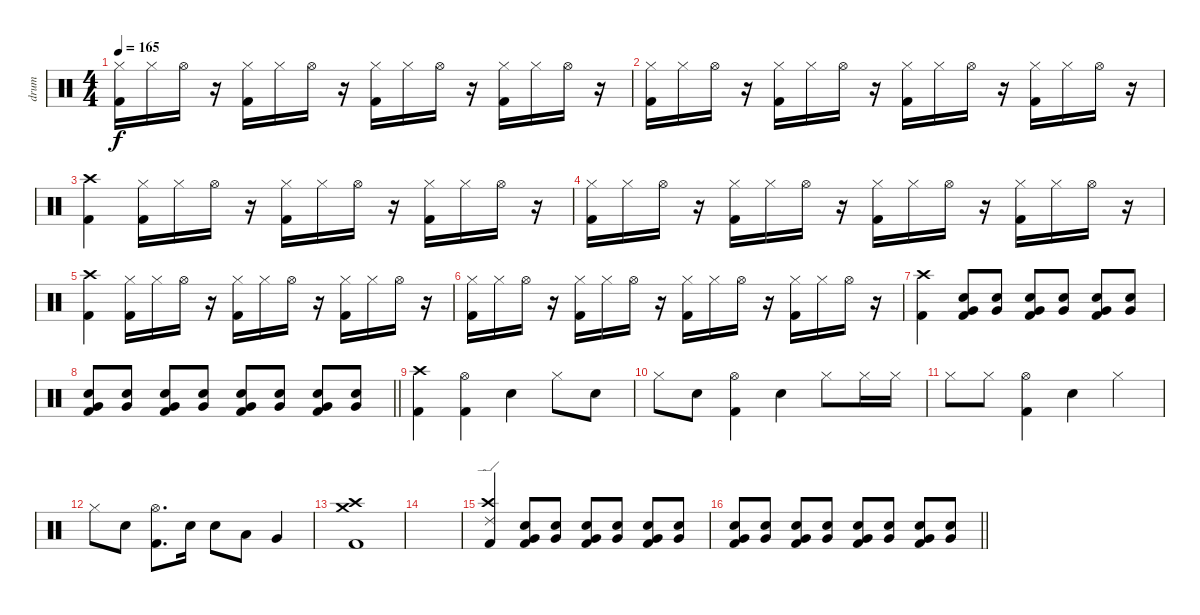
\track ("drum" "drum") {instrument percussion}
\staff {score}
\articulation defaults
\ts (4 4)
\tempo 165
\clef neutral
\ks c
("Hi-Hat (closed)" "Kick (hit) 2").16{dy f} "Hi-Hat (closed)".16 "Hi-Hat (open)".16 r.16 ("Hi-Hat (closed)" "Kick (hit) 2").16 "Hi-Hat (closed)".16 "Hi-Hat (open)".16 r.16 ("Hi-Hat (closed)" "Kick (hit) 2").16 "Hi-Hat (closed)".16 "Hi-Hat (open)".16 r.16 ("Hi-Hat (closed)" "Kick (hit) 2").16 "Hi-Hat (closed)".16 "Hi-Hat (open)".16 r.16 |
("Hi-Hat (closed)" "Kick (hit) 2").16 "Hi-Hat (closed)".16 "Hi-Hat (open)".16 r.16 ("Hi-Hat (closed)" "Kick (hit) 2").16 "Hi-Hat (closed)".16 "Hi-Hat (open)".16 r.16 ("Hi-Hat (closed)" "Kick (hit) 2").16 "Hi-Hat (closed)".16 "Hi-Hat (open)".16 r.16 ("Hi-Hat (closed)" "Kick (hit) 2").16 "Hi-Hat (closed)".16 "Hi-Hat (open)".16 r.16 |
("Crash high (hit)" "Kick (hit) 2").4 ("Hi-Hat (closed)" "Kick (hit) 2").16 "Hi-Hat (closed)".16 "Hi-Hat (open)".16 r.16 ("Hi-Hat (closed)" "Kick (hit) 2").16 "Hi-Hat (closed)".16 "Hi-Hat (open)".16 r.16 ("Hi-Hat (closed)" "Kick (hit) 2").16 "Hi-Hat (closed)".16 "Hi-Hat (open)".16 r.16 |
("Hi-Hat (closed)" "Kick (hit) 2").16 "Hi-Hat (closed)".16 "Hi-Hat (open)".16 r.16 ("Hi-Hat (closed)" "Kick (hit) 2").16 "Hi-Hat (closed)".16 "Hi-Hat (open)".16 r.16 ("Hi-Hat (closed)" "Kick (hit) 2").16 "Hi-Hat (closed)".16 "Hi-Hat (open)".16 r.16 ("Hi-Hat (closed)" "Kick (hit) 2").16 "Hi-Hat (closed)".16 "Hi-Hat (open)".16 r.16 |
("Crash high (hit)" "Kick (hit) 2").4 ("Hi-Hat (closed)" "Kick (hit) 2").16 "Hi-Hat (closed)".16 "Hi-Hat (open)".16 r.16 ("Hi-Hat (closed)" "Kick (hit) 2").16 "Hi-Hat (closed)".16 "Hi-Hat (open)".16 r.16 ("Hi-Hat (closed)" "Kick (hit) 2").16 "Hi-Hat (closed)".16 "Hi-Hat (open)".16 r.16 |
("Hi-Hat (closed)" "Kick (hit) 2").16 "Hi-Hat (closed)".16 "Hi-Hat (open)".16 r.16 ("Hi-Hat (closed)" "Kick (hit) 2").16 "Hi-Hat (closed)".16 "Hi-Hat (open)".16 r.16 ("Hi-Hat (closed)" "Kick (hit) 2").16 "Hi-Hat (closed)".16 "Hi-Hat (open)".16 r.16 ("Hi-Hat (closed)" "Kick (hit) 2").16 "Hi-Hat (closed)".16 "Hi-Hat (open)".16 r.16 |
("Crash high (hit)" "Kick (hit) 2").4 ("Very Low Tom (hit)" "Electric Snare (hit)" "Kick (hit) 2").8 ("Very Low Tom (hit)" "Electric Snare (hit)").8 ("Very Low Tom (hit)" "Electric Snare (hit)" "Kick (hit) 2").8 ("Very Low Tom (hit)" "Electric Snare (hit)").8 ("Very Low Tom (hit)" "Electric Snare (hit)" "Kick (hit) 2").8 ("Very Low Tom (hit)" "Electric Snare (hit)").8 |
\barLineRight lightlight
("Very Low Tom (hit)" "Electric Snare (hit)" "Kick (hit) 2").8 ("Very Low Tom (hit)" "Electric Snare (hit)").8 ("Very Low Tom (hit)" "Electric Snare (hit)" "Kick (hit) 2").8 ("Very Low Tom (hit)" "Electric Snare (hit)").8 ("Very Low Tom (hit)" "Electric Snare (hit)" "Kick (hit) 2").8 ("Very Low Tom (hit)" "Electric Snare (hit)").8 ("Very Low Tom (hit)" "Electric Snare (hit)" "Kick (hit) 2").8 ("Very Low Tom (hit)" "Electric Snare (hit)").8 |
("Crash high (hit)" "Kick (hit) 2").4 ("Hi-Hat (open)" "Kick (hit) 2").4 "Electric Snare (hit)".4 "Hi-Hat (closed)".8 "Electric Snare (hit)".8 |
"Hi-Hat (closed)".8 "Electric Snare (hit)".8 ("Hi-Hat (open)" "Kick (hit) 2").4 "Electric Snare (hit)".4 "Hi-Hat (closed)".8 "Hi-Hat (closed)".16 "Hi-Hat (closed)".16 |
"Hi-Hat (closed)".8 "Hi-Hat (closed)".8 ("Hi-Hat (open)" "Kick (hit) 2").4 "Electric Snare (hit)".4 "Hi-Hat (closed)".4 |
"Hi-Hat (closed)".8 "Electric Snare (hit)".8 ("Hi-Hat (open)" "Kick (hit) 2").8{d} "Electric Snare (hit)".16 "Electric Snare (hit)".8 "Low Tom (hit)".8 "Very Low Tom (hit)".4 |
("Crash high (hit)" "Crash medium (hit)" "Kick (hit) 2").1 |
|
("Ride (edge) 2" "Crash high (hit)" "Kick (hit) 2").4 ("Very Low Tom (hit)" "Electric Snare (hit)" "Kick (hit) 2").8 ("Very Low Tom (hit)" "Electric Snare (hit)").8 ("Very Low Tom (hit)" "Electric Snare (hit)" "Kick (hit) 2").8 ("Very Low Tom (hit)" "Electric Snare (hit)").8 ("Very Low Tom (hit)" "Electric Snare (hit)" "Kick (hit) 2").8 ("Very Low Tom (hit)" "Electric Snare (hit)").8 |
\barLineRight lightlight
("Very Low Tom (hit)" "Electric Snare (hit)" "Kick (hit) 2").8 ("Very Low Tom (hit)" "Electric Snare (hit)").8 ("Very Low Tom (hit)" "Electric Snare (hit)" "Kick (hit) 2").8 ("Very Low Tom (hit)" "Electric Snare (hit)").8 ("Very Low Tom (hit)" "Electric Snare (hit)" "Kick (hit) 2").8 ("Very Low Tom (hit)" "Electric Snare (hit)").8 ("Very Low Tom (hit)" "Electric Snare (hit)" "Kick (hit) 2").8 ("Very Low Tom (hit)" "Electric Snare (hit)").8
